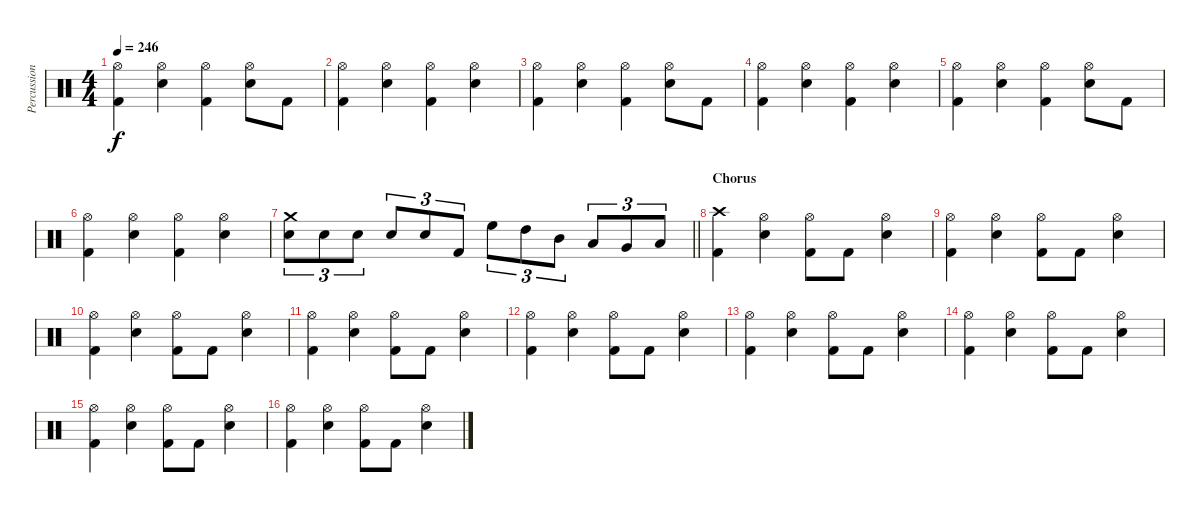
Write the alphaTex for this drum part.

\track ("Percussions" "Percussion") {instrument percussion}
\staff {score}
\articulation defaults
\ts (4 4)
\tempo 246
\clef neutral
\ks c
("Hi-Hat (open)" "Kick (hit) 2").4{dy f} ("Hi-Hat (open)" "Electric Snare (hit)").4 ("Hi-Hat (open)" "Kick (hit) 2").4 ("Hi-Hat (open)" "Electric Snare (hit)").8 "Kick (hit) 2".8 |
("Hi-Hat (open)" "Kick (hit) 2").4 ("Hi-Hat (open)" "Electric Snare (hit)").4 ("Hi-Hat (open)" "Kick (hit) 2").4 ("Hi-Hat (open)" "Electric Snare (hit)").4 |
("Hi-Hat (open)" "Kick (hit) 2").4 ("Hi-Hat (open)" "Electric Snare (hit)").4 ("Hi-Hat (open)" "Kick (hit) 2").4 ("Hi-Hat (open)" "Electric Snare (hit)").8 "Kick (hit) 2".8 |
("Hi-Hat (open)" "Kick (hit) 2").4 ("Hi-Hat (open)" "Electric Snare (hit)").4 ("Hi-Hat (open)" "Kick (hit) 2").4 ("Hi-Hat (open)" "Electric Snare (hit)").4 |
("Hi-Hat (open)" "Kick (hit) 2").4 ("Hi-Hat (open)" "Electric Snare (hit)").4 ("Hi-Hat (open)" "Kick (hit) 2").4 ("Hi-Hat (open)" "Electric Snare (hit)").8 "Kick (hit) 2".8 |
("Hi-Hat (open)" "Kick (hit) 2").4 ("Hi-Hat (open)" "Electric Snare (hit)").4 ("Hi-Hat (open)" "Kick (hit) 2").4 ("Hi-Hat (open)" "Electric Snare (hit)").4 |
\barLineRight lightlight
("Crash medium (hit)" "Electric Snare (hit)").8{tu (3 2)} "Electric Snare (hit)".8{tu (3 2)} "Electric Snare (hit)".8{tu (3 2)} "Electric Snare (hit)".8{tu (3 2)} "Electric Snare (hit)".8{tu (3 2)} "Kick (hit) 2".8{tu (3 2)} "High Floor Tom (hit)".8{tu (3 2)} "High Tom (hit)".8{tu (3 2)} "Mid Tom (hit)".8{tu (3 2)} "Low Tom (hit)".8{tu (3 2)} "Very Low Tom (hit)".8{tu (3 2)} "Low Floor Tom (hit)".8{tu (3 2)} |
\section ("" "Chorus")
("Crash high (hit)" "Kick (hit) 2").4 ("Hi-Hat (open)" "Electric Snare (hit)").4 ("Hi-Hat (open)" "Kick (hit) 2").8 "Kick (hit) 2".8 ("Hi-Hat (open)" "Electric Snare (hit)").4 |
("Hi-Hat (open)" "Kick (hit) 2").4 ("Hi-Hat (open)" "Electric Snare (hit)").4 ("Hi-Hat (open)" "Kick (hit) 2").8 "Kick (hit) 2".8 ("Hi-Hat (open)" "Electric Snare (hit)").4 |
("Hi-Hat (open)" "Kick (hit) 2").4 ("Hi-Hat (open)" "Electric Snare (hit)").4 ("Hi-Hat (open)" "Kick (hit) 2").8 "Kick (hit) 2".8 ("Hi-Hat (open)" "Electric Snare (hit)").4 |
("Hi-Hat (open)" "Kick (hit) 2").4 ("Hi-Hat (open)" "Electric Snare (hit)").4 ("Hi-Hat (open)" "Kick (hit) 2").8 "Kick (hit) 2".8 ("Hi-Hat (open)" "Electric Snare (hit)").4 |
("Hi-Hat (open)" "Kick (hit) 2").4 ("Hi-Hat (open)" "Electric Snare (hit)").4 ("Hi-Hat (open)" "Kick (hit) 2").8 "Kick (hit) 2".8 ("Hi-Hat (open)" "Electric Snare (hit)").4 |
("Hi-Hat (open)" "Kick (hit) 2").4 ("Hi-Hat (open)" "Electric Snare (hit)").4 ("Hi-Hat (open)" "Kick (hit) 2").8 "Kick (hit) 2".8 ("Hi-Hat (open)" "Electric Snare (hit)").4 |
("Hi-Hat (open)" "Kick (hit) 2").4 ("Hi-Hat (open)" "Electric Snare (hit)").4 ("Hi-Hat (open)" "Kick (hit) 2").8 "Kick (hit) 2".8 ("Hi-Hat (open)" "Electric Snare (hit)").4 |
("Hi-Hat (open)" "Kick (hit) 2").4 ("Hi-Hat (open)" "Electric Snare (hit)").4 ("Hi-Hat (open)" "Kick (hit) 2").8 "Kick (hit) 2".8 ("Hi-Hat (open)" "Electric Snare (hit)").4 |
("Hi-Hat (open)" "Kick (hit) 2").4 ("Hi-Hat (open)" "Electric Snare (hit)").4 ("Hi-Hat (open)" "Kick (hit) 2").8 "Kick (hit) 2".8 ("Hi-Hat (open)" "Electric Snare (hit)").4
